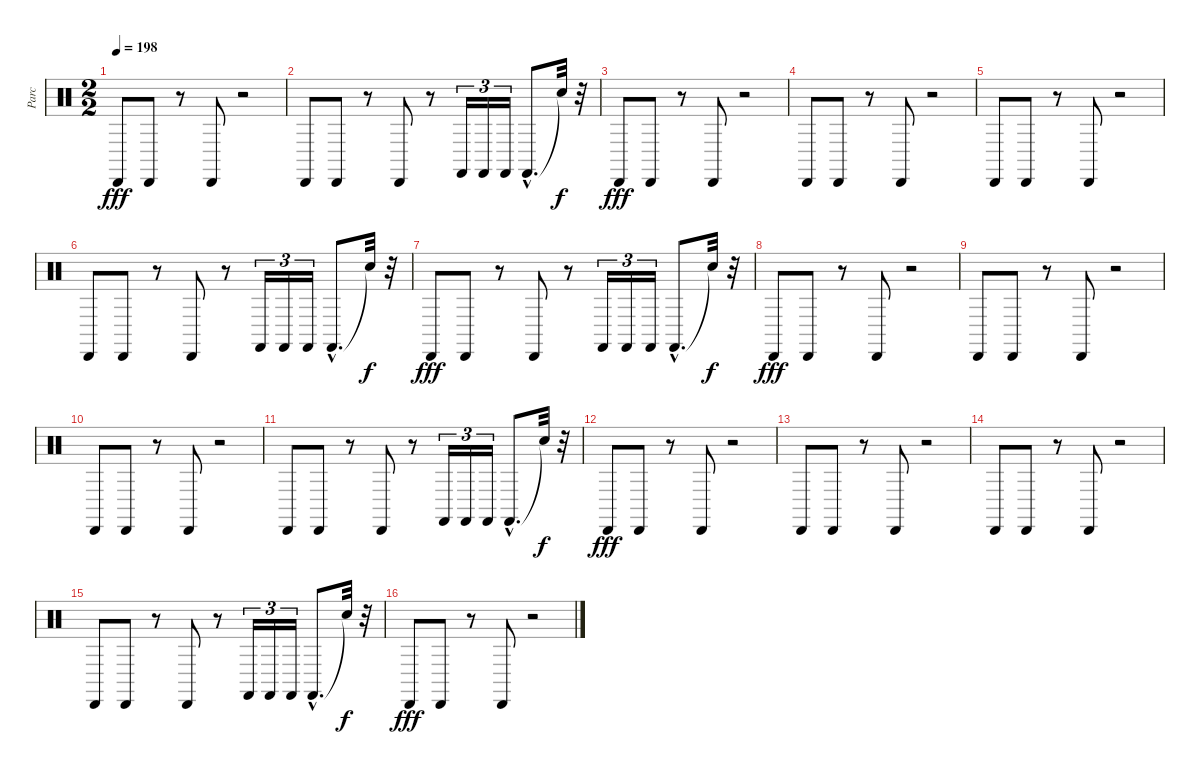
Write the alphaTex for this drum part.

\track ("Parc" "Parc") {instrument percussion}
\staff {score}
\articulation defaults
\ts (2 2)
\tempo 198
\clef neutral
\ks c "Cabasa (hit)".8{dy fff} "Cabasa (hit)".8
r.8 "Cabasa (hit)".8 r.2 |
"Cabasa (hit)".8 "Cabasa (hit)".8 r.8 "Cabasa (hit)".8 r.8 "Castanets (hit)".16{tu (3 2)} "Castanets (hit)".16{tu (3 2)} "Castanets (hit)".16{tu (3 2)} "Castanets (hit)"{hac}.8{d} "Snare (hit)"{t}.32{dy f} r.32 |
"Cabasa (hit)".8{dy fff} "Cabasa (hit)".8 r.8 "Cabasa (hit)".8 r.2 |
"Cabasa (hit)".8 "Cabasa (hit)".8 r.8 "Cabasa (hit)".8 r.2 |
"Cabasa (hit)".8 "Cabasa (hit)".8 r.8 "Cabasa (hit)".8 r.2 |
"Cabasa (hit)".8 "Cabasa (hit)".8 r.8 "Cabasa (hit)".8 r.8 "Castanets (hit)".16{tu (3 2)} "Castanets (hit)".16{tu (3 2)} "Castanets (hit)".16{tu (3 2)} "Castanets (hit)"{hac}.8{d} "Snare (hit)"{t}.32{dy f} r.32 |
"Cabasa (hit)".8{dy fff} "Cabasa (hit)".8 r.8 "Cabasa (hit)".8 r.8 "Castanets (hit)".16{tu (3 2)} "Castanets (hit)".16{tu (3 2)} "Castanets (hit)".16{tu (3 2)} "Castanets (hit)"{hac}.8{d} "Snare (hit)"{t}.32{dy f} r.32 |
"Cabasa (hit)".8{dy fff} "Cabasa (hit)".8 r.8 "Cabasa (hit)".8 r.2 |
"Cabasa (hit)".8 "Cabasa (hit)".8 r.8 "Cabasa (hit)".8 r.2 |
"Cabasa (hit)".8 "Cabasa (hit)".8 r.8 "Cabasa (hit)".8 r.2 |
"Cabasa (hit)".8 "Cabasa (hit)".8 r.8 "Cabasa (hit)".8 r.8 "Castanets (hit)".16{tu (3 2)} "Castanets (hit)".16{tu (3 2)} "Castanets (hit)".16{tu (3 2)} "Castanets (hit)"{hac}.8{d} "Snare (hit)"{t}.32{dy f} r.32 |
"Cabasa (hit)".8{dy fff} "Cabasa (hit)".8 r.8 "Cabasa (hit)".8 r.2 |
"Cabasa (hit)".8 "Cabasa (hit)".8 r.8 "Cabasa (hit)".8 r.2 |
"Cabasa (hit)".8 "Cabasa (hit)".8 r.8 "Cabasa (hit)".8 r.2 |
"Cabasa (hit)".8 "Cabasa (hit)".8 r.8 "Cabasa (hit)".8 r.8 "Castanets (hit)".16{tu (3 2)} "Castanets (hit)".16{tu (3 2)} "Castanets (hit)".16{tu (3 2)} "Castanets (hit)"{hac}.8{d} "Snare (hit)"{t}.32{dy f} r.32 |
"Cabasa (hit)".8{dy fff} "Cabasa (hit)".8 r.8 "Cabasa (hit)".8 r.2
